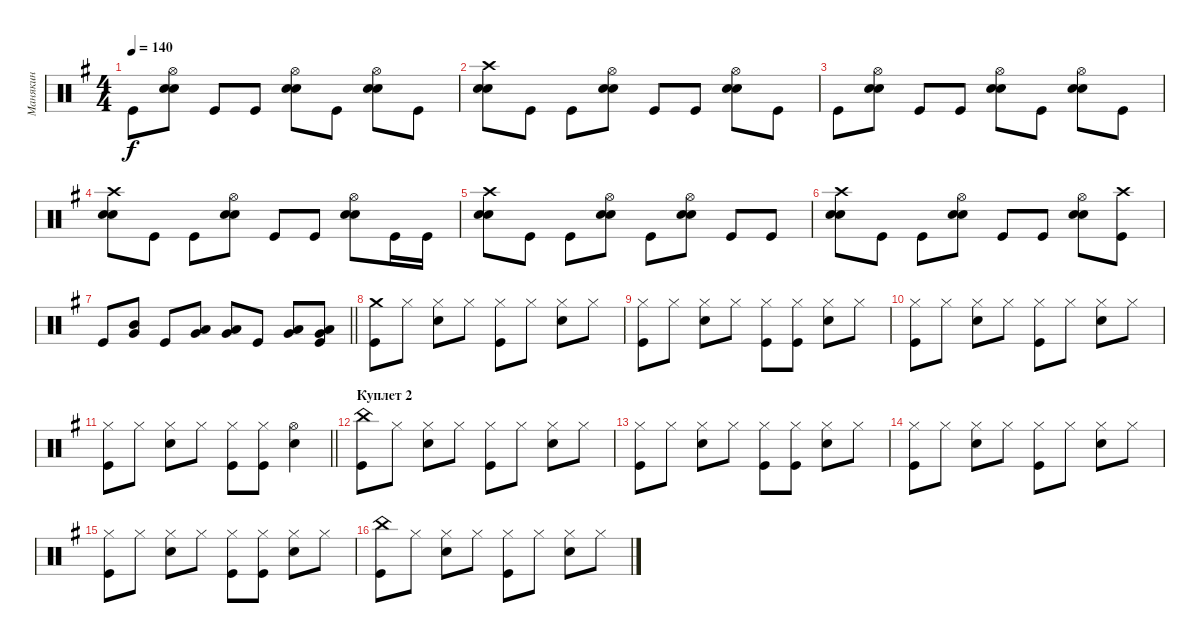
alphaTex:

\track ("Манякин" "Манякин") {instrument percussion}
\staff {score}
\articulation defaults
\ts (4 4)
\tempo 140
\clef neutral
\ks g "Kick (hit)".8{dy f}
("Hi-Hat (open)" "Electric Snare (hit)" "Snare (hit) 2").8 "Kick (hit)".8 "Kick (hit)".8 ("Hi-Hat (open)" "Electric Snare (hit)" "Snare (hit) 2").8 "Kick (hit)".8 ("Hi-Hat (open)" "Electric Snare (hit)" "Snare (hit) 2").8 "Kick (hit)".8 |
("Crash high (hit)" "Electric Snare (hit)" "Snare (hit) 2").8 "Kick (hit)".8 "Kick (hit)".8 ("Hi-Hat (open)" "Electric Snare (hit)" "Snare (hit) 2").8 "Kick (hit)".8 "Kick (hit)".8 ("Hi-Hat (open)" "Electric Snare (hit)" "Snare (hit) 2").8 "Kick (hit)".8 |
"Kick (hit)".8 ("Hi-Hat (open)" "Electric Snare (hit)" "Snare (hit) 2").8 "Kick (hit)".8 "Kick (hit)".8 ("Hi-Hat (open)" "Electric Snare (hit)" "Snare (hit) 2").8 "Kick (hit)".8 ("Hi-Hat (open)" "Electric Snare (hit)" "Snare (hit) 2").8 "Kick (hit)".8 |
("Crash high (hit)" "Electric Snare (hit)" "Snare (hit) 2").8 "Kick (hit)".8 "Kick (hit)".8 ("Hi-Hat (open)" "Electric Snare (hit)" "Snare (hit) 2").8 "Kick (hit)".8 "Kick (hit)".8 ("Hi-Hat (open)" "Electric Snare (hit)" "Snare (hit) 2").8 "Kick (hit)".16 "Kick (hit)".16 |
("Crash high (hit)" "Electric Snare (hit)" "Snare (hit) 2").8 "Kick (hit)".8 "Kick (hit)".8 ("Hi-Hat (open)" "Electric Snare (hit)" "Snare (hit) 2").8 "Kick (hit)".8 ("Hi-Hat (open)" "Electric Snare (hit)" "Snare (hit) 2").8 "Kick (hit)".8 "Kick (hit)".8 |
("Crash high (hit)" "Electric Snare (hit)" "Snare (hit) 2").8 "Kick (hit)".8 "Kick (hit)".8 ("Hi-Hat (open)" "Electric Snare (hit)" "Snare (hit) 2").8 "Kick (hit)".8 "Kick (hit)".8 ("Hi-Hat (open)" "Electric Snare (hit)" "Snare (hit) 2").8 ("Crash high (hit)" "Kick (hit)").8 |
\barLineRight lightlight "Kick (hit)".8
("Very Low Tom (hit)" "Mid Tom (hit)").8 "Kick (hit)".8 ("Very Low Tom (hit)" "Low Floor Tom (hit)").8 ("Low Tom (hit)" "Very Low Tom (hit)").8 "Kick (hit)".8 ("Very Low Tom (hit)" "Low Floor Tom (hit)").8 ("Low Tom (hit)" "Very Low Tom (hit)" "Kick (hit)").8 |
("Crash medium (hit)" "Kick (hit)").8 "Hi-Hat (closed)".8 ("Hi-Hat (closed)" "Snare (hit) 2").8 "Hi-Hat (closed)".8 ("Hi-Hat (closed)" "Kick (hit)").8 "Hi-Hat (closed)".8 ("Hi-Hat (closed)" "Snare (hit) 2").8 "Hi-Hat (closed)".8 |
("Hi-Hat (closed)" "Kick (hit)").8 "Hi-Hat (closed)".8 ("Hi-Hat (closed)" "Snare (hit) 2").8 "Hi-Hat (closed)".8 ("Hi-Hat (closed)" "Kick (hit)").8 ("Hi-Hat (closed)" "Kick (hit)").8 ("Hi-Hat (closed)" "Snare (hit) 2").8 "Hi-Hat (closed)".8 |
("Hi-Hat (closed)" "Kick (hit)").8 "Hi-Hat (closed)".8 ("Hi-Hat (closed)" "Snare (hit) 2").8 "Hi-Hat (closed)".8 ("Hi-Hat (closed)" "Kick (hit)").8 "Hi-Hat (closed)".8 ("Hi-Hat (closed)" "Snare (hit) 2").8 "Hi-Hat (closed)".8 |
\barLineRight lightlight
("Hi-Hat (closed)" "Kick (hit)").8 "Hi-Hat (closed)".8 ("Hi-Hat (closed)" "Snare (hit) 2").8 "Hi-Hat (closed)".8 ("Hi-Hat (closed)" "Kick (hit)").8 ("Hi-Hat (closed)" "Kick (hit)").8 ("Hi-Hat (open)" "Snare (hit) 2").4 |
\section ("" "Куплет 2")
("China (hit)" "Kick (hit)").8 "Hi-Hat (closed)".8 ("Hi-Hat (closed)" "Snare (hit) 2").8 "Hi-Hat (closed)".8 ("Hi-Hat (closed)" "Kick (hit)").8 "Hi-Hat (closed)".8 ("Hi-Hat (closed)" "Snare (hit) 2").8 "Hi-Hat (closed)".8 |
("Hi-Hat (closed)" "Kick (hit)").8 "Hi-Hat (closed)".8 ("Hi-Hat (closed)" "Snare (hit) 2").8 "Hi-Hat (closed)".8 ("Hi-Hat (closed)" "Kick (hit)").8 ("Hi-Hat (closed)" "Kick (hit)").8 ("Hi-Hat (closed)" "Snare (hit) 2").8 "Hi-Hat (closed)".8 |
("Hi-Hat (closed)" "Kick (hit)").8 "Hi-Hat (closed)".8 ("Hi-Hat (closed)" "Snare (hit) 2").8 "Hi-Hat (closed)".8 ("Hi-Hat (closed)" "Kick (hit)").8 "Hi-Hat (closed)".8 ("Hi-Hat (closed)" "Snare (hit) 2").8 "Hi-Hat (closed)".8 |
("Hi-Hat (closed)" "Kick (hit)").8 "Hi-Hat (closed)".8 ("Hi-Hat (closed)" "Snare (hit) 2").8 "Hi-Hat (closed)".8 ("Hi-Hat (closed)" "Kick (hit)").8 ("Hi-Hat (closed)" "Kick (hit)").8 ("Hi-Hat (closed)" "Snare (hit) 2").8 "Hi-Hat (closed)".8 |
("China (hit)" "Kick (hit)").8 "Hi-Hat (closed)".8 ("Hi-Hat (closed)" "Snare (hit) 2").8 "Hi-Hat (closed)".8 ("Hi-Hat (closed)" "Kick (hit)").8 "Hi-Hat (closed)".8 ("Hi-Hat (closed)" "Snare (hit) 2").8 "Hi-Hat (closed)".8
